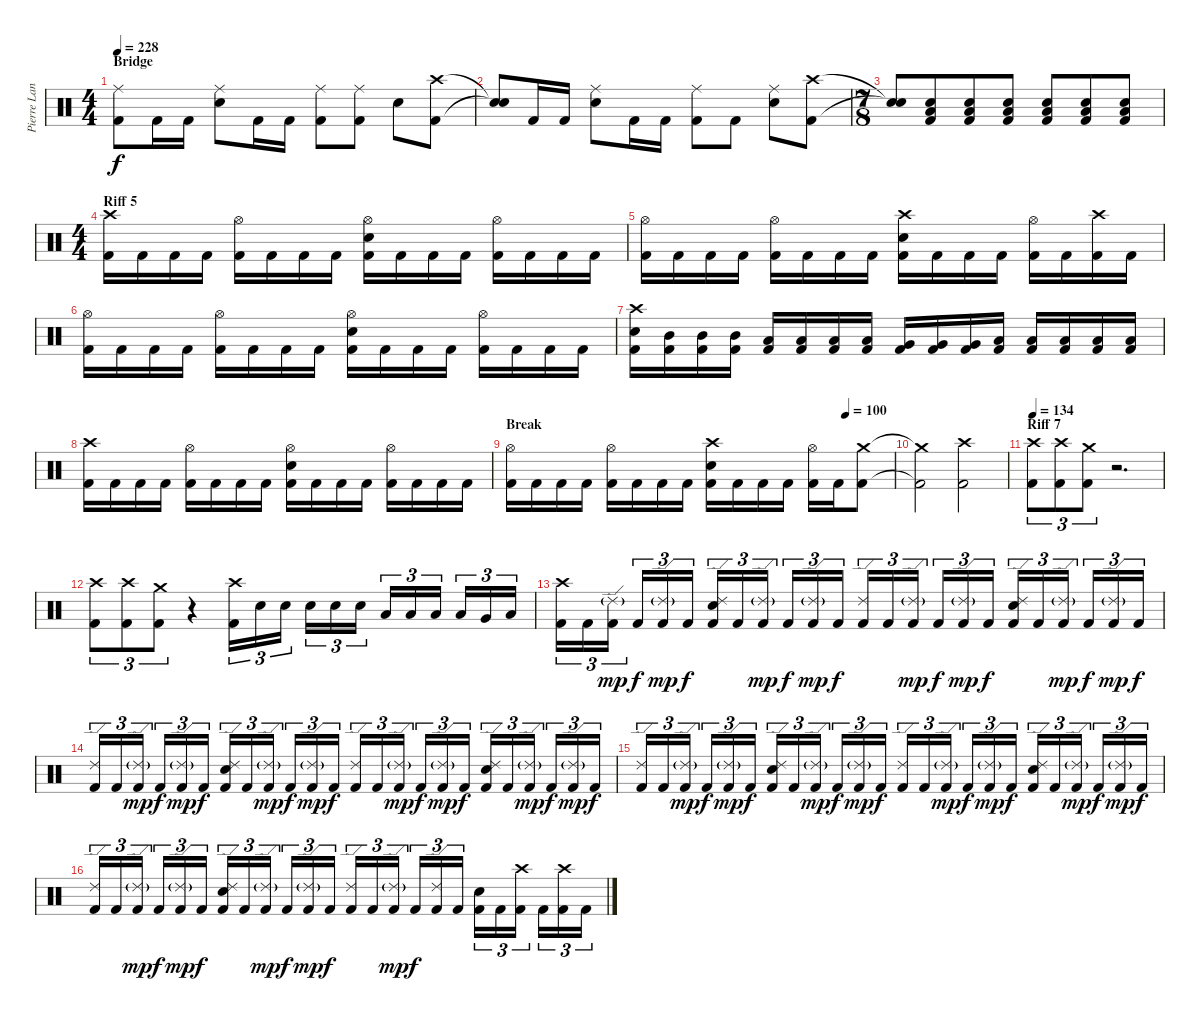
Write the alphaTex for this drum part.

\track ("Pierre Langlois (Drums)" "Pierre Lan") {instrument percussion}
\staff {score}
\articulation defaults
\ts (4 4)
\section ("" "Bridge")
\tempo 228
\clef neutral
\ks c
("Ride (middle)" "Kick (hit) 2").8{dy f} "Kick (hit) 2".16 "Kick (hit) 2".16 ("Ride (middle)" "Snare (hit) 2").8 "Kick (hit) 2".16 "Kick (hit) 2".16 ("Kick (hit) 2" "Ride (middle)").8 ("Ride (middle)" "Kick (hit) 2").8 "Snare (hit) 2".8 ("Crash high (hit)" "Kick (hit) 2").8 |
("Snare (hit)"{t} "Snare (hit)"{t}).8 "Kick (hit) 2".16 "Kick (hit) 2".16 ("Ride (middle)" "Snare (hit) 2").8 "Kick (hit) 2".16 "Kick (hit) 2".16 ("Ride (middle)" "Kick (hit) 2").8 "Kick (hit) 2".8 ("Ride (middle)" "Snare (hit) 2").8 ("Crash high (hit)" "Kick (hit) 2").8 |
\ts (7 8)
("Snare (hit)"{t} "Snare (hit)"{t}).8 ("Low Floor Tom (hit)" "Snare (hit) 2" "Kick (hit) 2").8 ("Low Floor Tom (hit)" "Snare (hit) 2" "Kick (hit) 2").8 ("Low Floor Tom (hit)" "Snare (hit) 2" "Kick (hit) 2").8 ("Low Floor Tom (hit)" "Snare (hit) 2" "Kick (hit) 2").8 ("Low Floor Tom (hit)" "Snare (hit) 2" "Kick (hit) 2").8 ("Low Floor Tom (hit)" "Snare (hit) 2" "Kick (hit) 2").8 |
\ts (4 4)
\section ("" "Riff 5")
("Crash high (hit)" "Kick (hit) 2").16 "Kick (hit) 2".16 "Kick (hit) 2".16 "Kick (hit) 2".16 ("Hi-Hat (open)" "Kick (hit) 2").16 "Kick (hit) 2".16 "Kick (hit) 2".16 "Kick (hit) 2".16 ("Hi-Hat (open)" "Snare (hit) 2" "Kick (hit) 2").16 "Kick (hit) 2".16 "Kick (hit) 2".16 "Kick (hit) 2".16 ("Hi-Hat (open)" "Kick (hit) 2").16 "Kick (hit) 2".16 "Kick (hit) 2".16 "Kick (hit) 2".16 |
("Hi-Hat (open)" "Kick (hit) 2").16 "Kick (hit) 2".16 "Kick (hit) 2".16 "Kick (hit) 2".16 ("Hi-Hat (open)" "Kick (hit) 2").16 "Kick (hit) 2".16 "Kick (hit) 2".16 "Kick (hit) 2".16 ("Crash high (hit)" "Snare (hit) 2" "Kick (hit) 2").16 "Kick (hit) 2".16 "Kick (hit) 2".16 "Kick (hit) 2".16 ("Hi-Hat (open)" "Kick (hit) 2").16 "Kick (hit) 2".16 ("Crash high (hit)" "Kick (hit) 2").16 "Kick (hit) 2".16 |
("Hi-Hat (open)" "Kick (hit) 2").16 "Kick (hit) 2".16 "Kick (hit) 2".16 "Kick (hit) 2".16 ("Hi-Hat (open)" "Kick (hit) 2").16 "Kick (hit) 2".16 "Kick (hit) 2".16 "Kick (hit) 2".16 ("Hi-Hat (open)" "Snare (hit) 2" "Kick (hit) 2").16 "Kick (hit) 2".16 "Kick (hit) 2".16 "Kick (hit) 2".16 ("Hi-Hat (open)" "Kick (hit) 2").16 "Kick (hit) 2".16 "Kick (hit) 2".16 "Kick (hit) 2".16 |
("Crash high (hit)" "Snare (hit) 2" "Kick (hit) 2").16 ("Mid Tom (hit)" "Kick (hit) 2").16 ("Mid Tom (hit)" "Kick (hit) 2").16 ("Mid Tom (hit)" "Kick (hit) 2").16 ("Low Tom (hit)" "Kick (hit) 2").16 ("Low Tom (hit)" "Kick (hit) 2").16 ("Low Tom (hit)" "Kick (hit) 2").16 ("Low Tom (hit)" "Kick (hit) 2").16 ("Very Low Tom (hit)" "Kick (hit) 2").16 ("Very Low Tom (hit)" "Kick (hit) 2").16 ("Very Low Tom (hit)" "Kick (hit) 2").16 ("Low Floor Tom (hit)" "Kick (hit) 2").16 ("Low Floor Tom (hit)" "Kick (hit) 2").16 ("Low Floor Tom (hit)" "Kick (hit) 2").16 ("Low Floor Tom (hit)" "Kick (hit) 2").16 ("Low Floor Tom (hit)" "Kick (hit) 2").16 |
("Crash high (hit)" "Kick (hit) 2").16 "Kick (hit) 2".16 "Kick (hit) 2".16 "Kick (hit) 2".16 ("Hi-Hat (open)" "Kick (hit) 2").16 "Kick (hit) 2".16 "Kick (hit) 2".16 "Kick (hit) 2".16 ("Hi-Hat (open)" "Snare (hit) 2" "Kick (hit) 2").16 "Kick (hit) 2".16 "Kick (hit) 2".16 "Kick (hit) 2".16 ("Hi-Hat (open)" "Kick (hit) 2").16 "Kick (hit) 2".16 "Kick (hit) 2".16 "Kick (hit) 2".16 |
\section ("" "Break")
\tempo (100 0.875)
("Hi-Hat (open)" "Kick (hit) 2").16 "Kick (hit) 2".16 "Kick (hit) 2".16 "Kick (hit) 2".16 ("Hi-Hat (open)" "Kick (hit) 2").16 "Kick (hit) 2".16 "Kick (hit) 2".16 "Kick (hit) 2".16 ("Crash high (hit)" "Snare (hit) 2" "Kick (hit) 2").16 "Kick (hit) 2".16 "Kick (hit) 2".16 "Kick (hit) 2".16 ("Hi-Hat (open)" "Kick (hit) 2").16 "Kick (hit) 2".16 ("Crash medium (hit)" "Kick (hit) 2").8 |
("Crash medium (hit)"{t} "Kick (hit) 2"{t}).2 ("Crash high (hit)" "Kick (hit) 2").2 |
\section ("" "Riff 7 ")
\tempo 134
("Crash high (hit)" "Kick (hit) 2").8{tu (3 2)} ("Crash high (hit)" "Kick (hit) 2").8{tu (3 2)} ("Crash medium (hit)" "Kick (hit) 2").8{tu (3 2)} r.2{d} |
("Crash high (hit)" "Kick (hit) 2").8{tu (3 2)} ("Crash high (hit)" "Kick (hit) 2").8{tu (3 2)} ("Crash medium (hit)" "Kick (hit) 2").8{tu (3 2)} r.4 ("Crash high (hit)" "Kick (hit) 2").16{tu (3 2)} "Snare (hit) 2".16{tu (3 2)} "Snare (hit) 2".16{tu (3 2)} "Snare (hit) 2".16{tu (3 2)} "Snare (hit) 2".16{tu (3 2)} "Snare (hit) 2".16{tu (3 2)} "Low Tom (hit)".16{tu (3 2)} "Low Tom (hit)".16{tu (3 2)} "Low Tom (hit)".16{tu (3 2)} "Low Tom (hit)".16{tu (3 2)} "Very Low Tom (hit)".16{tu (3 2)} "Low Floor Tom (hit)".16{tu (3 2)} |
("Crash high (hit)" "Kick (hit) 2").16{tu (3 2)} "Kick (hit) 2".16{tu (3 2)} ("Ride (edge) 2"{g} "Kick (hit) 2").16{tu (3 2) dy mp} "Kick (hit) 2".16{tu (3 2) dy f} ("Ride (edge) 2"{g} "Kick (hit) 2").16{tu (3 2) dy mp} "Kick (hit) 2".16{tu (3 2) dy f} ("Ride (edge) 2" "Snare (hit) 2" "Kick (hit) 2").16{tu (3 2)} "Kick (hit) 2".16{tu (3 2)} ("Ride (edge) 2"{g} "Kick (hit) 2").16{tu (3 2) dy mp} "Kick (hit) 2".16{tu (3 2) dy f} ("Ride (edge) 2"{g} "Kick (hit) 2").16{tu (3 2) dy mp} "Kick (hit) 2".16{tu (3 2) dy f} ("Ride (edge) 2" "Kick (hit) 2").16{tu (3 2)} "Kick (hit) 2".16{tu (3 2)} ("Ride (edge) 2"{g} "Kick (hit) 2").16{tu (3 2) dy mp} "Kick (hit) 2".16{tu (3 2) dy f} ("Ride (edge) 2"{g} "Kick (hit) 2").16{tu (3 2) dy mp} "Kick (hit) 2".16{tu (3 2) dy f} ("Snare (hit) 2" "Ride (edge) 2" "Kick (hit) 2").16{tu (3 2)} "Kick (hit) 2".16{tu (3 2)} ("Ride (edge) 2"{g} "Kick (hit) 2").16{tu (3 2) dy mp} "Kick (hit) 2".16{tu (3 2) dy f} ("Ride (edge) 2"{g} "Kick (hit) 2").16{tu (3 2) dy mp} "Kick (hit) 2".16{tu (3 2) dy f} |
("Ride (edge) 2" "Kick (hit) 2").16{tu (3 2)} "Kick (hit) 2".16{tu (3 2)} ("Ride (edge) 2"{g} "Kick (hit) 2").16{tu (3 2) dy mp} "Kick (hit) 2".16{tu (3 2) dy f} ("Ride (edge) 2"{g} "Kick (hit) 2").16{tu (3 2) dy mp} "Kick (hit) 2".16{tu (3 2) dy f} ("Ride (edge) 2" "Snare (hit) 2" "Kick (hit) 2").16{tu (3 2)} "Kick (hit) 2".16{tu (3 2)} ("Ride (edge) 2"{g} "Kick (hit) 2").16{tu (3 2) dy mp} "Kick (hit) 2".16{tu (3 2) dy f} ("Ride (edge) 2"{g} "Kick (hit) 2").16{tu (3 2) dy mp} "Kick (hit) 2".16{tu (3 2) dy f} ("Ride (edge) 2" "Kick (hit) 2").16{tu (3 2)} "Kick (hit) 2".16{tu (3 2)} ("Ride (edge) 2"{g} "Kick (hit) 2").16{tu (3 2) dy mp} "Kick (hit) 2".16{tu (3 2) dy f} ("Ride (edge) 2"{g} "Kick (hit) 2").16{tu (3 2) dy mp} "Kick (hit) 2".16{tu (3 2) dy f} ("Snare (hit) 2" "Ride (edge) 2" "Kick (hit) 2").16{tu (3 2)} "Kick (hit) 2".16{tu (3 2)} ("Ride (edge) 2"{g} "Kick (hit) 2").16{tu (3 2) dy mp} "Kick (hit) 2".16{tu (3 2) dy f} ("Ride (edge) 2"{g} "Kick (hit) 2").16{tu (3 2) dy mp} "Kick (hit) 2".16{tu (3 2) dy f} |
("Ride (edge) 2" "Kick (hit) 2").16{tu (3 2)} "Kick (hit) 2".16{tu (3 2)} ("Ride (edge) 2"{g} "Kick (hit) 2").16{tu (3 2) dy mp} "Kick (hit) 2".16{tu (3 2) dy f} ("Ride (edge) 2"{g} "Kick (hit) 2").16{tu (3 2) dy mp} "Kick (hit) 2".16{tu (3 2) dy f} ("Ride (edge) 2" "Snare (hit) 2" "Kick (hit) 2").16{tu (3 2)} "Kick (hit) 2".16{tu (3 2)} ("Ride (edge) 2"{g} "Kick (hit) 2").16{tu (3 2) dy mp} "Kick (hit) 2".16{tu (3 2) dy f} ("Ride (edge) 2"{g} "Kick (hit) 2").16{tu (3 2) dy mp} "Kick (hit) 2".16{tu (3 2) dy f} ("Ride (edge) 2" "Kick (hit) 2").16{tu (3 2)} "Kick (hit) 2".16{tu (3 2)} ("Ride (edge) 2"{g} "Kick (hit) 2").16{tu (3 2) dy mp} "Kick (hit) 2".16{tu (3 2) dy f} ("Ride (edge) 2"{g} "Kick (hit) 2").16{tu (3 2) dy mp} "Kick (hit) 2".16{tu (3 2) dy f} ("Snare (hit) 2" "Ride (edge) 2" "Kick (hit) 2").16{tu (3 2)} "Kick (hit) 2".16{tu (3 2)} ("Ride (edge) 2"{g} "Kick (hit) 2").16{tu (3 2) dy mp} "Kick (hit) 2".16{tu (3 2) dy f} ("Ride (edge) 2"{g} "Kick (hit) 2").16{tu (3 2) dy mp} "Kick (hit) 2".16{tu (3 2) dy f} |
("Ride (edge) 2" "Kick (hit) 2").16{tu (3 2)} "Kick (hit) 2".16{tu (3 2)} ("Ride (edge) 2"{g} "Kick (hit) 2").16{tu (3 2) dy mp} "Kick (hit) 2".16{tu (3 2) dy f} ("Ride (edge) 2"{g} "Kick (hit) 2").16{tu (3 2) dy mp} "Kick (hit) 2".16{tu (3 2) dy f} ("Ride (edge) 2" "Snare (hit) 2" "Kick (hit) 2").16{tu (3 2)} "Kick (hit) 2".16{tu (3 2)} ("Ride (edge) 2"{g} "Kick (hit) 2").16{tu (3 2) dy mp} "Kick (hit) 2".16{tu (3 2) dy f} ("Ride (edge) 2"{g} "Kick (hit) 2").16{tu (3 2) dy mp} "Kick (hit) 2".16{tu (3 2) dy f} ("Ride (edge) 2" "Kick (hit) 2").16{tu (3 2)} "Kick (hit) 2".16{tu (3 2)} ("Ride (edge) 2"{g} "Kick (hit) 2").16{tu (3 2) dy mp} "Kick (hit) 2".16{tu (3 2) dy f} ("Ride (edge) 2" "Kick (hit) 2").16{tu (3 2)} "Kick (hit) 2".16{tu (3 2)} ("Snare (hit) 2" "Kick (hit) 2").16{tu (3 2)} "Kick (hit) 2".16{tu (3 2)} ("Crash high (hit)" "Kick (hit) 2").16{tu (3 2)} "Kick (hit) 2".16{tu (3 2)} ("Crash high (hit)" "Kick (hit) 2").16{tu (3 2)} "Kick (hit) 2".16{tu (3 2)}
